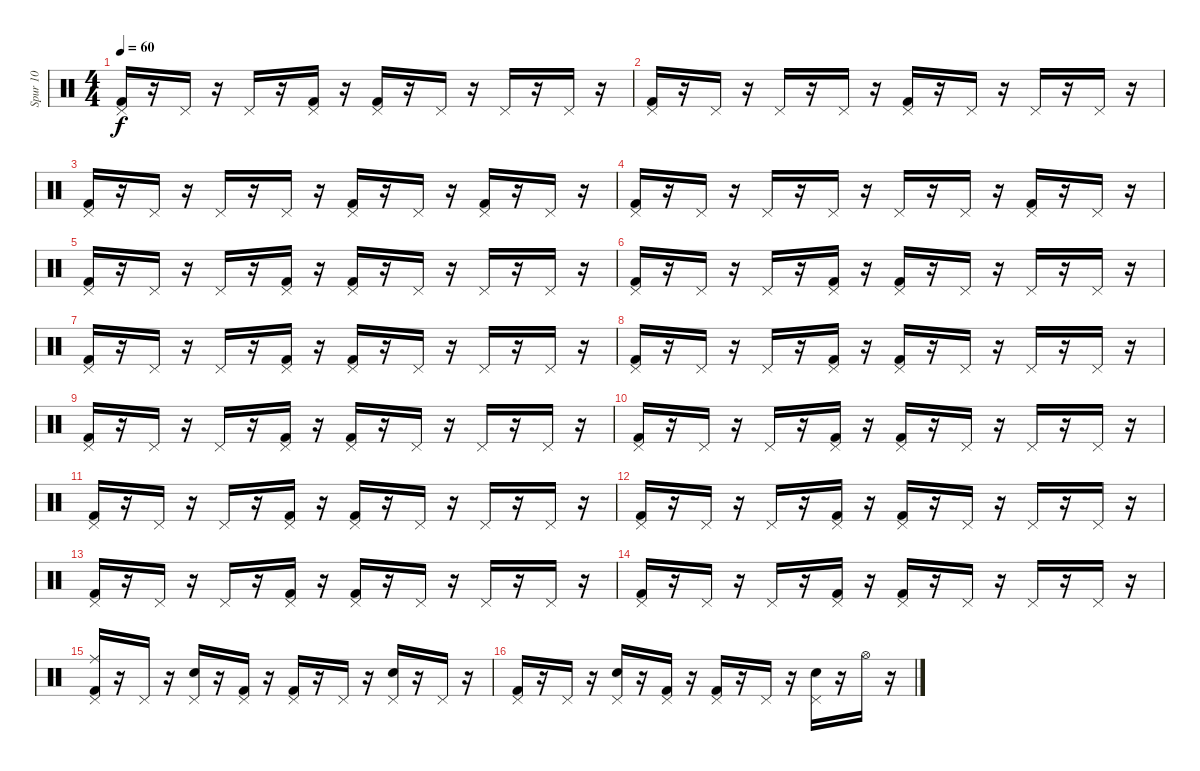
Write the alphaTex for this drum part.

\track ("Spur 10" "Spur 10") {instrument percussion}
\staff {score}
\articulation defaults
\ts (4 4)
\tempo 60
\clef neutral
\ks c
("Pedal Hi-Hat (hit)" "Kick (hit) 2").16{dy f} r.16 "Pedal Hi-Hat (hit)".16 r.16 "Pedal Hi-Hat (hit)".16 r.16 ("Kick (hit) 2" "Pedal Hi-Hat (hit)").16 r.16 ("Pedal Hi-Hat (hit)" "Kick (hit) 2").16 r.16 "Pedal Hi-Hat (hit)".16 r.16 "Pedal Hi-Hat (hit)".16 r.16 "Pedal Hi-Hat (hit)".16 r.16 |
("Pedal Hi-Hat (hit)" "Kick (hit) 2").16 r.16 "Pedal Hi-Hat (hit)".16 r.16 "Pedal Hi-Hat (hit)".16 r.16 "Pedal Hi-Hat (hit)".16 r.16 ("Pedal Hi-Hat (hit)" "Kick (hit) 2").16 r.16 "Pedal Hi-Hat (hit)".16 r.16 "Pedal Hi-Hat (hit)".16 r.16 "Pedal Hi-Hat (hit)".16 r.16 |
("Pedal Hi-Hat (hit)" "Kick (hit) 2").16 r.16 "Pedal Hi-Hat (hit)".16 r.16 "Pedal Hi-Hat (hit)".16 r.16 "Pedal Hi-Hat (hit)".16 r.16 ("Pedal Hi-Hat (hit)" "Kick (hit) 2").16 r.16 "Pedal Hi-Hat (hit)".16 r.16 ("Kick (hit) 2" "Pedal Hi-Hat (hit)").16 r.16 "Pedal Hi-Hat (hit)".16 r.16 |
("Pedal Hi-Hat (hit)" "Kick (hit) 2").16 r.16 "Pedal Hi-Hat (hit)".16 r.16 "Pedal Hi-Hat (hit)".16 r.16 "Pedal Hi-Hat (hit)".16 r.16 "Pedal Hi-Hat (hit)".16 r.16 "Pedal Hi-Hat (hit)".16 r.16 ("Kick (hit) 2" "Pedal Hi-Hat (hit)").16 r.16 "Pedal Hi-Hat (hit)".16 r.16 |
("Pedal Hi-Hat (hit)" "Kick (hit) 2").16 r.16 "Pedal Hi-Hat (hit)".16 r.16 "Pedal Hi-Hat (hit)".16 r.16 ("Kick (hit) 2" "Pedal Hi-Hat (hit)").16 r.16 ("Pedal Hi-Hat (hit)" "Kick (hit) 2").16 r.16 "Pedal Hi-Hat (hit)".16 r.16 "Pedal Hi-Hat (hit)".16 r.16 "Pedal Hi-Hat (hit)".16 r.16 |
("Pedal Hi-Hat (hit)" "Kick (hit) 2").16 r.16 "Pedal Hi-Hat (hit)".16 r.16 "Pedal Hi-Hat (hit)".16 r.16 ("Kick (hit) 2" "Pedal Hi-Hat (hit)").16 r.16 ("Pedal Hi-Hat (hit)" "Kick (hit) 2").16 r.16 "Pedal Hi-Hat (hit)".16 r.16 "Pedal Hi-Hat (hit)".16 r.16 "Pedal Hi-Hat (hit)".16 r.16 |
("Pedal Hi-Hat (hit)" "Kick (hit) 2").16 r.16 "Pedal Hi-Hat (hit)".16 r.16 "Pedal Hi-Hat (hit)".16 r.16 ("Kick (hit) 2" "Pedal Hi-Hat (hit)").16 r.16 ("Pedal Hi-Hat (hit)" "Kick (hit) 2").16 r.16 "Pedal Hi-Hat (hit)".16 r.16 "Pedal Hi-Hat (hit)".16 r.16 "Pedal Hi-Hat (hit)".16 r.16 |
("Pedal Hi-Hat (hit)" "Kick (hit) 2").16 r.16 "Pedal Hi-Hat (hit)".16 r.16 "Pedal Hi-Hat (hit)".16 r.16 ("Kick (hit) 2" "Pedal Hi-Hat (hit)").16 r.16 ("Pedal Hi-Hat (hit)" "Kick (hit) 2").16 r.16 "Pedal Hi-Hat (hit)".16 r.16 "Pedal Hi-Hat (hit)".16 r.16 "Pedal Hi-Hat (hit)".16 r.16 |
("Pedal Hi-Hat (hit)" "Kick (hit) 2").16 r.16 "Pedal Hi-Hat (hit)".16 r.16 "Pedal Hi-Hat (hit)".16 r.16 ("Kick (hit) 2" "Pedal Hi-Hat (hit)").16 r.16 ("Pedal Hi-Hat (hit)" "Kick (hit) 2").16 r.16 "Pedal Hi-Hat (hit)".16 r.16 "Pedal Hi-Hat (hit)".16 r.16 "Pedal Hi-Hat (hit)".16 r.16 |
("Pedal Hi-Hat (hit)" "Kick (hit) 2").16 r.16 "Pedal Hi-Hat (hit)".16 r.16 "Pedal Hi-Hat (hit)".16 r.16 ("Kick (hit) 2" "Pedal Hi-Hat (hit)").16 r.16 ("Pedal Hi-Hat (hit)" "Kick (hit) 2").16 r.16 "Pedal Hi-Hat (hit)".16 r.16 "Pedal Hi-Hat (hit)".16 r.16 "Pedal Hi-Hat (hit)".16 r.16 |
("Pedal Hi-Hat (hit)" "Kick (hit) 2").16 r.16 "Pedal Hi-Hat (hit)".16 r.16 "Pedal Hi-Hat (hit)".16 r.16 ("Kick (hit) 2" "Pedal Hi-Hat (hit)").16 r.16 ("Pedal Hi-Hat (hit)" "Kick (hit) 2").16 r.16 "Pedal Hi-Hat (hit)".16 r.16 "Pedal Hi-Hat (hit)".16 r.16 "Pedal Hi-Hat (hit)".16 r.16 |
("Pedal Hi-Hat (hit)" "Kick (hit) 2").16 r.16 "Pedal Hi-Hat (hit)".16 r.16 "Pedal Hi-Hat (hit)".16 r.16 ("Kick (hit) 2" "Pedal Hi-Hat (hit)").16 r.16 ("Pedal Hi-Hat (hit)" "Kick (hit) 2").16 r.16 "Pedal Hi-Hat (hit)".16 r.16 "Pedal Hi-Hat (hit)".16 r.16 "Pedal Hi-Hat (hit)".16 r.16 |
("Pedal Hi-Hat (hit)" "Kick (hit) 2").16 r.16 "Pedal Hi-Hat (hit)".16 r.16 "Pedal Hi-Hat (hit)".16 r.16 ("Kick (hit) 2" "Pedal Hi-Hat (hit)").16 r.16 ("Pedal Hi-Hat (hit)" "Kick (hit) 2").16 r.16 "Pedal Hi-Hat (hit)".16 r.16 "Pedal Hi-Hat (hit)".16 r.16 "Pedal Hi-Hat (hit)".16 r.16 |
("Pedal Hi-Hat (hit)" "Kick (hit) 2").16 r.16 "Pedal Hi-Hat (hit)".16 r.16 "Pedal Hi-Hat (hit)".16 r.16 ("Kick (hit) 2" "Pedal Hi-Hat (hit)").16 r.16 ("Pedal Hi-Hat (hit)" "Kick (hit) 2").16 r.16 "Pedal Hi-Hat (hit)".16 r.16 "Pedal Hi-Hat (hit)".16 r.16 "Pedal Hi-Hat (hit)".16 r.16 |
("Ride (middle)" "Pedal Hi-Hat (hit)" "Kick (hit) 2").16 r.16 "Pedal Hi-Hat (hit)".16 r.16 ("Snare (hit) 2" "Pedal Hi-Hat (hit)").16 r.16 ("Kick (hit) 2" "Pedal Hi-Hat (hit)").16 r.16 ("Pedal Hi-Hat (hit)" "Kick (hit) 2").16 r.16 "Pedal Hi-Hat (hit)".16 r.16 ("Snare (hit) 2" "Pedal Hi-Hat (hit)").16 r.16 "Pedal Hi-Hat (hit)".16 r.16 |
("Pedal Hi-Hat (hit)" "Kick (hit) 2").16 r.16 "Pedal Hi-Hat (hit)".16 r.16 ("Snare (hit) 2" "Pedal Hi-Hat (hit)").16 r.16 ("Kick (hit) 2" "Pedal Hi-Hat (hit)").16 r.16 ("Pedal Hi-Hat (hit)" "Kick (hit) 2").16 r.16 "Pedal Hi-Hat (hit)".16 r.16 ("Snare (hit) 2" "Pedal Hi-Hat (hit)").16 r.16 "Hi-Hat (open)".16 r.16
